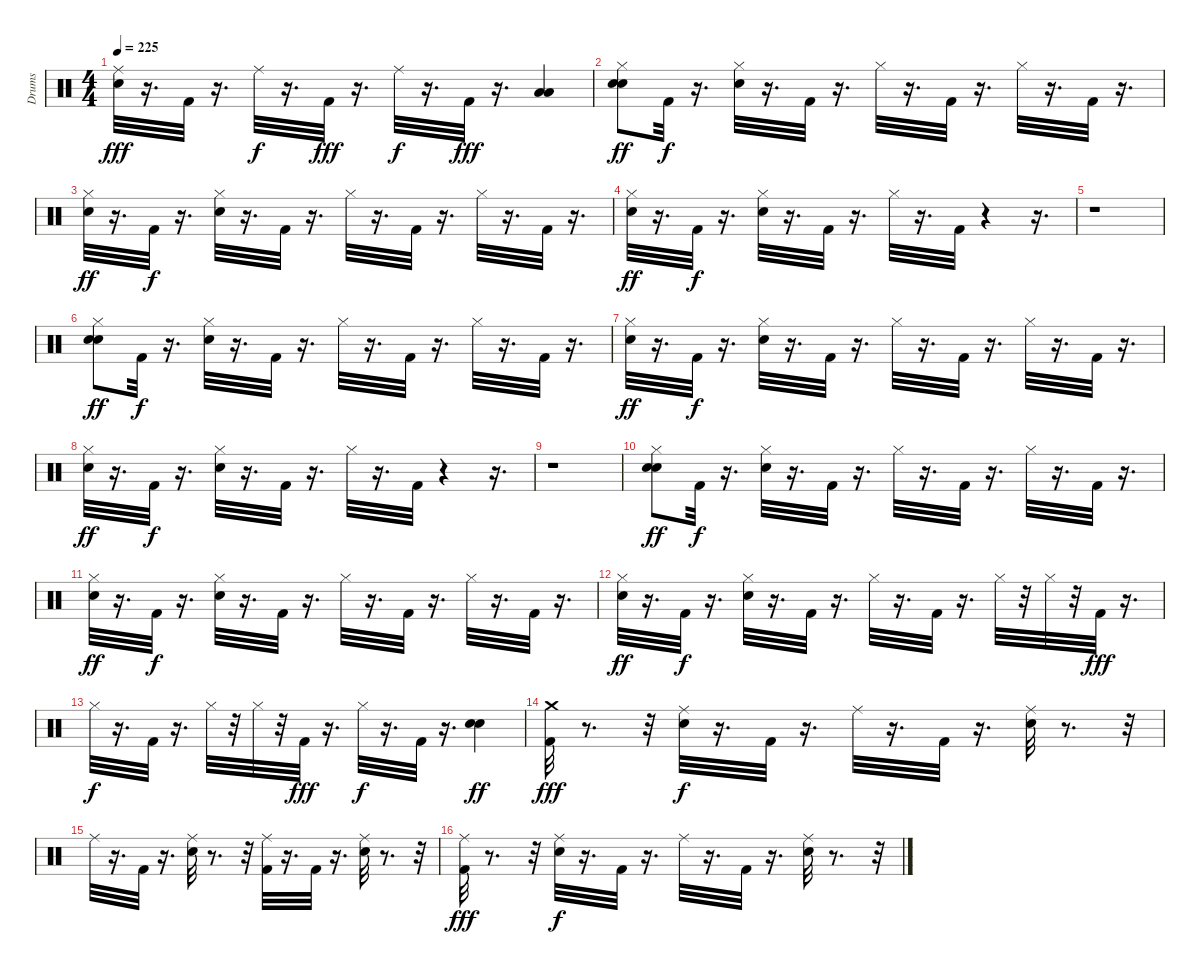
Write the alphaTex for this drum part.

\track ("Drums" "Drums") {instrument percussion}
\staff {score}
\articulation defaults
\ts (4 4)
\tempo 225
\clef neutral
\ks c
("Ride (middle)" "Snare (hit) 2").32{dy fff} r.16{d} "Kick (hit) 2".32 r.16{d} "Ride (middle)".32{dy f} r.16{d} "Kick (hit) 2".32{dy fff} r.16{d} "Ride (middle)".32{dy f} r.16{d} "Kick (hit) 2".32{dy fff} r.16{d} ("Low Tom (hit)" "Low Tom (hit)").4 |
("Snare (hit) 2" "Hi-Hat (closed)" "Snare (hit) 2").8{dy ff} "Kick (hit) 2".32{dy f} r.16{d} ("Hi-Hat (closed)" "Snare (hit) 2").32 r.16{d} "Kick (hit) 2".32 r.16{d} "Hi-Hat (closed)".32 r.16{d} "Kick (hit) 2".32 r.16{d} "Hi-Hat (closed)".32 r.16{d} "Kick (hit) 2".32 r.16{d} |
("Hi-Hat (closed)" "Snare (hit) 2").32{dy ff} r.16{d} "Kick (hit) 2".32{dy f} r.16{d} ("Hi-Hat (closed)" "Snare (hit) 2").32 r.16{d} "Kick (hit) 2".32 r.16{d} "Hi-Hat (closed)".32 r.16{d} "Kick (hit) 2".32 r.16{d} "Hi-Hat (closed)".32 r.16{d} "Kick (hit) 2".32 r.16{d} |
("Hi-Hat (closed)" "Snare (hit) 2").32{dy ff} r.16{d} "Kick (hit) 2".32{dy f} r.16{d} ("Hi-Hat (closed)" "Snare (hit) 2").32 r.16{d} "Kick (hit) 2".32 r.16{d} "Hi-Hat (closed)".32 r.16{d} "Kick (hit) 2".32 r.4 r.16{d} |
r.1 |
("Snare (hit) 2" "Hi-Hat (closed)" "Snare (hit) 2").8{dy ff} "Kick (hit) 2".32{dy f} r.16{d} ("Hi-Hat (closed)" "Snare (hit) 2").32 r.16{d} "Kick (hit) 2".32 r.16{d} "Hi-Hat (closed)".32 r.16{d} "Kick (hit) 2".32 r.16{d} "Hi-Hat (closed)".32 r.16{d} "Kick (hit) 2".32 r.16{d} |
("Hi-Hat (closed)" "Snare (hit) 2").32{dy ff} r.16{d} "Kick (hit) 2".32{dy f} r.16{d} ("Hi-Hat (closed)" "Snare (hit) 2").32 r.16{d} "Kick (hit) 2".32 r.16{d} "Hi-Hat (closed)".32 r.16{d} "Kick (hit) 2".32 r.16{d} "Hi-Hat (closed)".32 r.16{d} "Kick (hit) 2".32 r.16{d} |
("Hi-Hat (closed)" "Snare (hit) 2").32{dy ff} r.16{d} "Kick (hit) 2".32{dy f} r.16{d} ("Hi-Hat (closed)" "Snare (hit) 2").32 r.16{d} "Kick (hit) 2".32 r.16{d} "Hi-Hat (closed)".32 r.16{d} "Kick (hit) 2".32 r.4 r.16{d} |
r.1 |
("Snare (hit) 2" "Hi-Hat (closed)" "Snare (hit) 2").8{dy ff} "Kick (hit) 2".32{dy f} r.16{d} ("Hi-Hat (closed)" "Snare (hit) 2").32 r.16{d} "Kick (hit) 2".32 r.16{d} "Hi-Hat (closed)".32 r.16{d} "Kick (hit) 2".32 r.16{d} "Hi-Hat (closed)".32 r.16{d} "Kick (hit) 2".32 r.16{d} |
("Hi-Hat (closed)" "Snare (hit) 2").32{dy ff} r.16{d} "Kick (hit) 2".32{dy f} r.16{d} ("Hi-Hat (closed)" "Snare (hit) 2").32 r.16{d} "Kick (hit) 2".32 r.16{d} "Hi-Hat (closed)".32 r.16{d} "Kick (hit) 2".32 r.16{d} "Hi-Hat (closed)".32 r.16{d} "Kick (hit) 2".32 r.16{d} |
("Hi-Hat (closed)" "Snare (hit) 2").32{dy ff} r.16{d} "Kick (hit) 2".32{dy f} r.16{d} ("Hi-Hat (closed)" "Snare (hit) 2").32 r.16{d} "Kick (hit) 2".32 r.16{d} "Hi-Hat (closed)".32 r.16{d} "Kick (hit) 2".32 r.16{d} "Hi-Hat (closed)".32 r.32 "Hi-Hat (closed)".32 r.32 "Kick (hit) 2".32{dy fff} r.16{d} |
"Hi-Hat (closed)".32{dy f} r.16{d} "Kick (hit) 2".32 r.16{d} "Hi-Hat (closed)".32 r.32 "Hi-Hat (closed)".32 r.32 "Kick (hit) 2".32{dy fff} r.16{d} "Hi-Hat (closed)".32{dy f} r.16{d} "Kick (hit) 2".32 r.16{d} ("Snare (hit) 2" "Snare (hit) 2").4{dy ff} |
("Crash medium (hit)" "Kick (hit) 2").32{dy fff} r.8{d} r.32 ("Ride (middle)" "Snare (hit) 2").32{dy f} r.16{d} "Kick (hit) 2".32 r.16{d} "Ride (middle)".32 r.16{d} "Kick (hit) 2".32 r.16{d} ("Ride (middle)" "Snare (hit) 2").32 r.8{d} r.32 |
"Ride (middle)".32 r.16{d} "Kick (hit) 2".32 r.16{d} ("Ride (middle)" "Snare (hit) 2").32 r.8{d} r.32 ("Ride (middle)" "Kick (hit) 2").32 r.16{d} "Kick (hit) 2".32 r.16{d} ("Ride (middle)" "Snare (hit) 2").32 r.8{d} r.32 |
("Ride (middle)" "Kick (hit) 2").32{dy fff} r.8{d} r.32 ("Ride (middle)" "Snare (hit) 2").32{dy f} r.16{d} "Kick (hit) 2".32 r.16{d} "Ride (middle)".32 r.16{d} "Kick (hit) 2".32 r.16{d} ("Ride (middle)" "Snare (hit) 2").32 r.8{d} r.32
